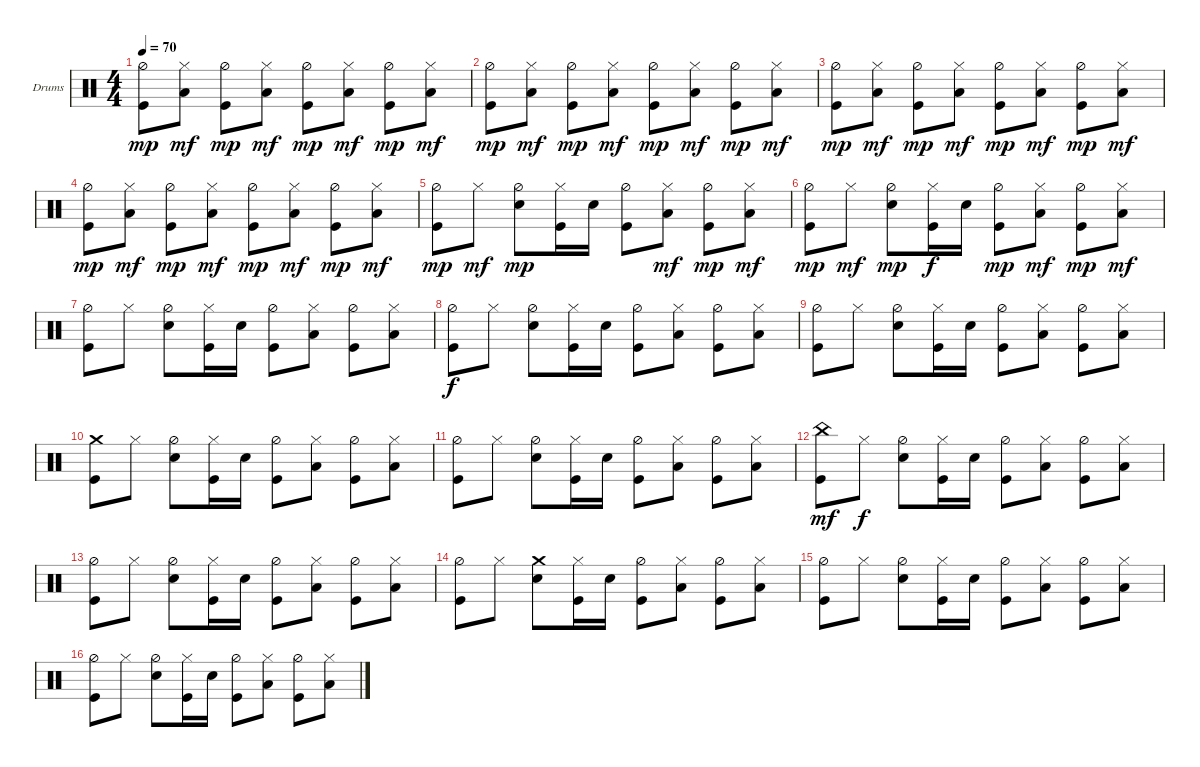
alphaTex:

\defaultSystemsLayout 4
\bracketExtendMode groupsimilarinstruments
\firstSystemTrackNameOrientation horizontal
\otherSystemsTrackNameOrientation horizontal
\track ("Jeremiah Green" "Drums") {instrument percussion}
\staff {score}
\articulation defaults
\ts (4 4)
\tempo 70
\clef neutral
\scale
0.333333
\ks c
("Kick (hit)" "Hi-Hat (half)").8{dy mp} ("Low Tom (hit)" "Hi-Hat (closed)").8{dy mf} ("Kick (hit)" "Hi-Hat (half)").8{dy mp} ("Low Tom (hit)" "Hi-Hat (closed)").8{dy mf} ("Kick (hit)" "Hi-Hat (half)").8{dy mp} ("Low Tom (hit)" "Hi-Hat (closed)").8{dy mf} ("Kick (hit)" "Hi-Hat (half)").8{dy mp} ("Low Tom (hit)" "Hi-Hat (closed)").8{dy mf} |
\scale
0.333333 ("Kick (hit)" "Hi-Hat (half)").8{dy mp} ("Low Tom (hit)" "Hi-Hat (closed)").8{dy mf} ("Kick (hit)" "Hi-Hat (half)").8{dy mp} ("Low Tom (hit)" "Hi-Hat (closed)").8{dy mf} ("Kick (hit)" "Hi-Hat (half)").8{dy mp} ("Low Tom (hit)" "Hi-Hat (closed)").8{dy mf} ("Kick (hit)" "Hi-Hat (half)").8{dy mp} ("Low Tom (hit)" "Hi-Hat (closed)").8{dy mf} |
\scale
0.333333 ("Kick (hit)" "Hi-Hat (half)").8{dy mp} ("Low Tom (hit)" "Hi-Hat (closed)").8{dy mf} ("Kick (hit)" "Hi-Hat (half)").8{dy mp} ("Low Tom (hit)" "Hi-Hat (closed)").8{dy mf} ("Kick (hit)" "Hi-Hat (half)").8{dy mp} ("Low Tom (hit)" "Hi-Hat (closed)").8{dy mf} ("Kick (hit)" "Hi-Hat (half)").8{dy mp} ("Low Tom (hit)" "Hi-Hat (closed)").8{dy mf} |
\scale
0.333333 ("Kick (hit)" "Hi-Hat (half)").8{dy mp} ("Low Tom (hit)" "Hi-Hat (closed)").8{dy mf} ("Kick (hit)" "Hi-Hat (half)").8{dy mp} ("Low Tom (hit)" "Hi-Hat (closed)").8{dy mf} ("Kick (hit)" "Hi-Hat (half)").8{dy mp} ("Low Tom (hit)" "Hi-Hat (closed)").8{dy mf} ("Kick (hit)" "Hi-Hat (half)").8{dy mp} ("Low Tom (hit)" "Hi-Hat (closed)").8{dy mf} |
\scale
0.333333 ("Kick (hit)" "Hi-Hat (half)").8{dy mp} "Hi-Hat (closed)".8{dy mf} ("Hi-Hat (half)" "Snare (hit) 2").8{dy mp} ("Kick (hit)" "Hi-Hat (closed)").16 "Snare (hit) 2".16 ("Kick (hit)" "Hi-Hat (half)").8 ("Low Tom (hit)" "Hi-Hat (closed)").8{dy mf} ("Kick (hit)" "Hi-Hat (half)").8{dy mp} ("Low Tom (hit)" "Hi-Hat (closed)").8{dy mf} |
\scale
0.333333 ("Kick (hit)" "Hi-Hat (half)").8{dy mp} "Hi-Hat (closed)".8{dy mf} ("Hi-Hat (half)" "Snare (hit) 2").8{dy mp} ("Kick (hit)" "Hi-Hat (closed)").16{dy f} "Snare (hit) 2".16 ("Kick (hit)" "Hi-Hat (half)").8{dy mp} ("Low Tom (hit)" "Hi-Hat (closed)").8{dy mf} ("Kick (hit)" "Hi-Hat (half)").8{dy mp} ("Low Tom (hit)" "Hi-Hat (closed)").8{dy mf} |
\scale
0.333333 ("Kick (hit)" "Hi-Hat (half)").8 "Hi-Hat (closed)".8 ("Hi-Hat (half)" "Snare (hit) 2").8 ("Kick (hit)" "Hi-Hat (closed)").16 "Snare (hit) 2".16 ("Kick (hit)" "Hi-Hat (half)").8 ("Low Tom (hit)" "Hi-Hat (closed)").8 ("Kick (hit)" "Hi-Hat (half)").8 ("Low Tom (hit)" "Hi-Hat (closed)").8 |
\scale
0.333333 ("Kick (hit)" "Hi-Hat (half)").8{dy f} "Hi-Hat (closed)".8 ("Hi-Hat (half)" "Snare (hit) 2").8 ("Kick (hit)" "Hi-Hat (closed)").16 "Snare (hit) 2".16 ("Kick (hit)" "Hi-Hat (half)").8 ("Low Tom (hit)" "Hi-Hat (closed)").8 ("Kick (hit)" "Hi-Hat (half)").8 ("Low Tom (hit)" "Hi-Hat (closed)").8 |
\scale
0.333333 ("Kick (hit)" "Hi-Hat (half)").8 "Hi-Hat (closed)".8 ("Hi-Hat (half)" "Snare (hit) 2").8 ("Kick (hit)" "Hi-Hat (closed)").16 "Snare (hit) 2".16 ("Kick (hit)" "Hi-Hat (half)").8 ("Low Tom (hit)" "Hi-Hat (closed)").8 ("Kick (hit)" "Hi-Hat (half)").8 ("Low Tom (hit)" "Hi-Hat (closed)").8 |
\scale
0.333333 ("Kick (hit)" "Crash medium (hit)").8 "Hi-Hat (closed)".8 ("Hi-Hat (half)" "Snare (hit) 2").8 ("Kick (hit)" "Hi-Hat (closed)").16 "Snare (hit) 2".16 ("Kick (hit)" "Hi-Hat (half)").8 ("Low Tom (hit)" "Hi-Hat (closed)").8 ("Kick (hit)" "Hi-Hat (half)").8 ("Low Tom (hit)" "Hi-Hat (closed)").8 |
\scale
0.333333 ("Kick (hit)" "Hi-Hat (half)").8 "Hi-Hat (closed)".8 ("Hi-Hat (half)" "Snare (hit) 2").8 ("Kick (hit)" "Hi-Hat (closed)").16 "Snare (hit) 2".16 ("Kick (hit)" "Hi-Hat (half)").8 ("Low Tom (hit)" "Hi-Hat (closed)").8 ("Kick (hit)" "Hi-Hat (half)").8 ("Low Tom (hit)" "Hi-Hat (closed)").8 |
\scale
0.333333 ("Kick (hit)" "China (hit)").8{dy mf} "Hi-Hat (closed)".8{dy f} ("Hi-Hat (half)" "Snare (hit) 2").8 ("Kick (hit)" "Hi-Hat (closed)").16 "Snare (hit) 2".16 ("Kick (hit)" "Hi-Hat (half)").8 ("Low Tom (hit)" "Hi-Hat (closed)").8 ("Kick (hit)" "Hi-Hat (half)").8 ("Low Tom (hit)" "Hi-Hat (closed)").8 |
\scale
0.333333 ("Kick (hit)" "Hi-Hat (half)").8 "Hi-Hat (closed)".8 ("Hi-Hat (half)" "Snare (hit) 2").8 ("Kick (hit)" "Hi-Hat (closed)").16 "Snare (hit) 2".16 ("Kick (hit)" "Hi-Hat (half)").8 ("Low Tom (hit)" "Hi-Hat (closed)").8 ("Kick (hit)" "Hi-Hat (half)").8 ("Low Tom (hit)" "Hi-Hat (closed)").8 |
\scale
0.333333 ("Kick (hit)" "Hi-Hat (half)").8 "Hi-Hat (closed)".8 ("Snare (hit) 2" "Crash medium (hit)").8 ("Kick (hit)" "Hi-Hat (closed)").16 "Snare (hit) 2".16 ("Kick (hit)" "Hi-Hat (half)").8 ("Low Tom (hit)" "Hi-Hat (closed)").8 ("Kick (hit)" "Hi-Hat (half)").8 ("Low Tom (hit)" "Hi-Hat (closed)").8 |
\scale
0.333333 ("Kick (hit)" "Hi-Hat (half)").8 "Hi-Hat (closed)".8 ("Hi-Hat (half)" "Snare (hit) 2").8 ("Kick (hit)" "Hi-Hat (closed)").16 "Snare (hit) 2".16 ("Kick (hit)" "Hi-Hat (half)").8 ("Low Tom (hit)" "Hi-Hat (closed)").8 ("Kick (hit)" "Hi-Hat (half)").8 ("Low Tom (hit)" "Hi-Hat (closed)").8 |
\scale
0.333333 ("Kick (hit)" "Hi-Hat (half)").8 "Hi-Hat (closed)".8 ("Hi-Hat (half)" "Snare (hit) 2").8 ("Kick (hit)" "Hi-Hat (closed)").16 "Snare (hit) 2".16 ("Kick (hit)" "Hi-Hat (half)").8 ("Low Tom (hit)" "Hi-Hat (closed)").8 ("Kick (hit)" "Hi-Hat (half)").8 ("Low Tom (hit)" "Hi-Hat (closed)").8
